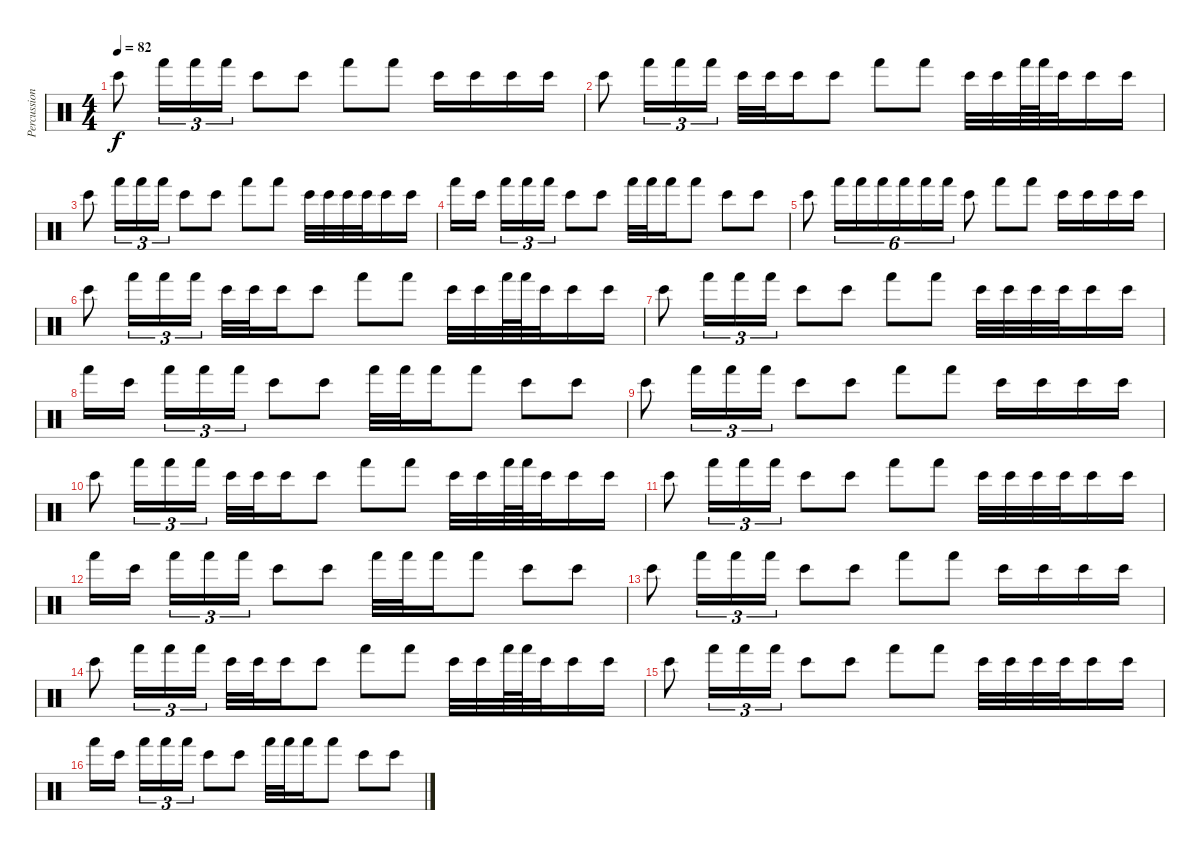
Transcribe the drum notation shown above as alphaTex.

\track ("Percussion" "Percussion") {instrument percussion}
\staff {score}
\articulation defaults
\ts (4 4)
\tempo 82
\clef neutral
\ks c "Bongo High (hit)".8{dy f} "Hand (hit)".16{tu (3 2)} "Hand (hit)".16{tu (3 2)} "Hand (hit)".16{tu (3 2)} "Bongo High (hit)".8 "Bongo High (hit)".8 "Hand (hit)".8 "Hand (hit)".8 "Bongo High (hit)".16 "Bongo High (hit)".16 "Bongo High (hit)".16 "Bongo High (hit)".16
|
"Bongo High (hit)".8 "Hand (hit)".16{tu (3 2)} "Hand (hit)".16{tu (3 2)} "Hand (hit)".16{tu (3 2)} "Bongo High (hit)".32 "Bongo High (hit)".32 "Bongo High (hit)".16 "Bongo High (hit)".8 "Hand (hit)".8 "Hand (hit)".8 "Bongo High (hit)".32 "Bongo High (hit)".32 "Hand (hit)".64 "Hand (hit)".64 "Bongo High (hit)".32 "Bongo High (hit)".16 "Bongo High (hit)".16 |
\section ("" "")
"Bongo High (hit)".8 "Hand (hit)".16{tu (3 2)} "Hand (hit)".16{tu (3 2)} "Hand (hit)".16{tu (3 2)} "Bongo High (hit)".8 "Bongo High (hit)".8 "Hand (hit)".8 "Hand (hit)".8 "Bongo High (hit)".32 "Bongo High (hit)".32 "Bongo High (hit)".32 "Bongo High (hit)".32 "Bongo High (hit)".16 "Bongo High (hit)".16 |
"Hand (hit)".16 "Bongo High (hit)".16 "Hand (hit)".16{tu (3 2)} "Hand (hit)".16{tu (3 2)} "Hand (hit)".16{tu (3 2)} "Bongo High (hit)".8 "Bongo High (hit)".8 "Hand (hit)".32 "Hand (hit)".32 "Hand (hit)".16 "Hand (hit)".8 "Bongo High (hit)".8 "Bongo High (hit)".8 |
"Bongo High (hit)".8 "Hand (hit)".16{tu (6 4)} "Hand (hit)".16{tu (6 4)} "Hand (hit)".16{tu (6 4)} "Hand (hit)".16{tu (6 4)} "Hand (hit)".16{tu (6 4)} "Hand (hit)".16{tu (6 4)} "Bongo High (hit)".8 "Hand (hit)".8 "Hand (hit)".8 "Bongo High (hit)".16 "Bongo High (hit)".16 "Bongo High (hit)".16 "Bongo High (hit)".16 |
"Bongo High (hit)".8 "Hand (hit)".16{tu (3 2)} "Hand (hit)".16{tu (3 2)} "Hand (hit)".16{tu (3 2)} "Bongo High (hit)".32 "Bongo High (hit)".32 "Bongo High (hit)".16 "Bongo High (hit)".8 "Hand (hit)".8 "Hand (hit)".8 "Bongo High (hit)".32 "Bongo High (hit)".32 "Hand (hit)".64 "Hand (hit)".64 "Bongo High (hit)".32 "Bongo High (hit)".16 "Bongo High (hit)".16 |
\section ("" "")
"Bongo High (hit)".8 "Hand (hit)".16{tu (3 2)} "Hand (hit)".16{tu (3 2)} "Hand (hit)".16{tu (3 2)} "Bongo High (hit)".8 "Bongo High (hit)".8 "Hand (hit)".8 "Hand (hit)".8 "Bongo High (hit)".32 "Bongo High (hit)".32 "Bongo High (hit)".32 "Bongo High (hit)".32 "Bongo High (hit)".16 "Bongo High (hit)".16 |
"Hand (hit)".16 "Bongo High (hit)".16 "Hand (hit)".16{tu (3 2)} "Hand (hit)".16{tu (3 2)} "Hand (hit)".16{tu (3 2)} "Bongo High (hit)".8 "Bongo High (hit)".8 "Hand (hit)".32 "Hand (hit)".32 "Hand (hit)".16 "Hand (hit)".8 "Bongo High (hit)".8 "Bongo High (hit)".8 |
"Bongo High (hit)".8 "Hand (hit)".16{tu (3 2)} "Hand (hit)".16{tu (3 2)} "Hand (hit)".16{tu (3 2)} "Bongo High (hit)".8 "Bongo High (hit)".8 "Hand (hit)".8 "Hand (hit)".8 "Bongo High (hit)".16 "Bongo High (hit)".16 "Bongo High (hit)".16 "Bongo High (hit)".16 |
"Bongo High (hit)".8 "Hand (hit)".16{tu (3 2)} "Hand (hit)".16{tu (3 2)} "Hand (hit)".16{tu (3 2)} "Bongo High (hit)".32 "Bongo High (hit)".32 "Bongo High (hit)".16 "Bongo High (hit)".8 "Hand (hit)".8 "Hand (hit)".8 "Bongo High (hit)".32 "Bongo High (hit)".32 "Hand (hit)".64 "Hand (hit)".64 "Bongo High (hit)".32 "Bongo High (hit)".16 "Bongo High (hit)".16 |
"Bongo High (hit)".8 "Hand (hit)".16{tu (3 2)} "Hand (hit)".16{tu (3 2)} "Hand (hit)".16{tu (3 2)} "Bongo High (hit)".8 "Bongo High (hit)".8 "Hand (hit)".8 "Hand (hit)".8 "Bongo High (hit)".32 "Bongo High (hit)".32 "Bongo High (hit)".32 "Bongo High (hit)".32 "Bongo High (hit)".16 "Bongo High (hit)".16 |
"Hand (hit)".16 "Bongo High (hit)".16 "Hand (hit)".16{tu (3 2)} "Hand (hit)".16{tu (3 2)} "Hand (hit)".16{tu (3 2)} "Bongo High (hit)".8 "Bongo High (hit)".8 "Hand (hit)".32 "Hand (hit)".32 "Hand (hit)".16 "Hand (hit)".8 "Bongo High (hit)".8 "Bongo High (hit)".8 |
"Bongo High (hit)".8 "Hand (hit)".16{tu (3 2)} "Hand (hit)".16{tu (3 2)} "Hand (hit)".16{tu (3 2)} "Bongo High (hit)".8 "Bongo High (hit)".8 "Hand (hit)".8 "Hand (hit)".8 "Bongo High (hit)".16 "Bongo High (hit)".16 "Bongo High (hit)".16 "Bongo High (hit)".16 |
"Bongo High (hit)".8 "Hand (hit)".16{tu (3 2)} "Hand (hit)".16{tu (3 2)} "Hand (hit)".16{tu (3 2)} "Bongo High (hit)".32 "Bongo High (hit)".32 "Bongo High (hit)".16 "Bongo High (hit)".8 "Hand (hit)".8 "Hand (hit)".8 "Bongo High (hit)".32 "Bongo High (hit)".32 "Hand (hit)".64 "Hand (hit)".64 "Bongo High (hit)".32 "Bongo High (hit)".16 "Bongo High (hit)".16 |
"Bongo High (hit)".8 "Hand (hit)".16{tu (3 2)} "Hand (hit)".16{tu (3 2)} "Hand (hit)".16{tu (3 2)} "Bongo High (hit)".8 "Bongo High (hit)".8 "Hand (hit)".8 "Hand (hit)".8 "Bongo High (hit)".32 "Bongo High (hit)".32 "Bongo High (hit)".32 "Bongo High (hit)".32 "Bongo High (hit)".16 "Bongo High (hit)".16 |
"Hand (hit)".16 "Bongo High (hit)".16 "Hand (hit)".16{tu (3 2)} "Hand (hit)".16{tu (3 2)} "Hand (hit)".16{tu (3 2)} "Bongo High (hit)".8 "Bongo High (hit)".8 "Hand (hit)".32 "Hand (hit)".32 "Hand (hit)".16 "Hand (hit)".8 "Bongo High (hit)".8 "Bongo High (hit)".8
